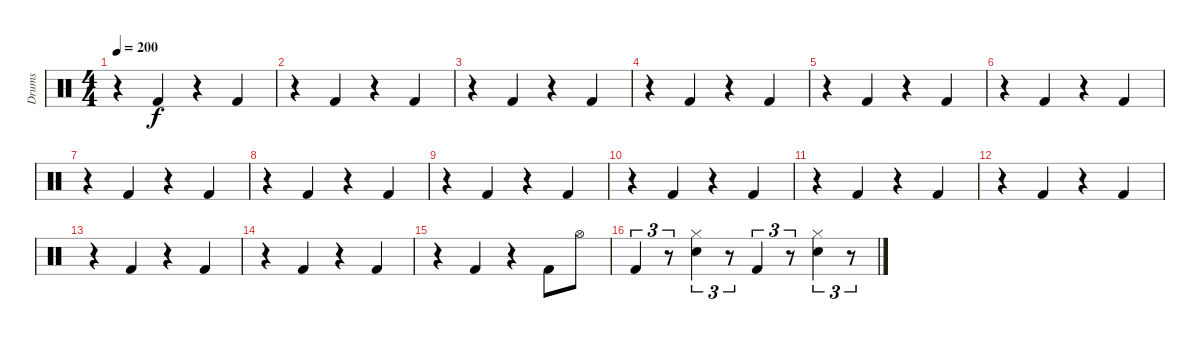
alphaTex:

\track ("Drums" "Drums") {instrument percussion}
\staff {score}
\articulation defaults
\ts (4 4)
\tempo 200
\clef neutral
\ks c
r.4{dy f} "Kick (hit) 2".4 r.4 "Kick (hit) 2".4 |
r.4 "Kick (hit) 2".4 r.4 "Kick (hit) 2".4 |
r.4 "Kick (hit) 2".4 r.4 "Kick (hit) 2".4 |
r.4 "Kick (hit) 2".4 r.4 "Kick (hit) 2".4 |
r.4 "Kick (hit) 2".4 r.4 "Kick (hit) 2".4 |
r.4 "Kick (hit) 2".4 r.4 "Kick (hit) 2".4 |
r.4 "Kick (hit) 2".4 r.4 "Kick (hit) 2".4 |
r.4 "Kick (hit) 2".4 r.4 "Kick (hit) 2".4 |
r.4 "Kick (hit) 2".4 r.4 "Kick (hit) 2".4 |
r.4 "Kick (hit) 2".4 r.4 "Kick (hit) 2".4 |
r.4 "Kick (hit) 2".4 r.4 "Kick (hit) 2".4 |
r.4 "Kick (hit) 2".4 r.4 "Kick (hit) 2".4 |
r.4 "Kick (hit) 2".4 r.4 "Kick (hit) 2".4 |
r.4 "Kick (hit) 2".4 r.4 "Kick (hit) 2".4 |
r.4 "Kick (hit) 2".4 r.4 "Kick (hit) 2".8 "Hi-Hat (open)".8 |
"Kick (hit) 2".4{tu (3 2)} r.8{tu (3 2)} ("Hi-Hat (closed)" "Snare (hit) 2").4{tu (3 2)} r.8{tu (3 2)} "Kick (hit) 2".4{tu (3 2)} r.8{tu (3 2)} ("Hi-Hat (closed)" "Snare (hit) 2").4{tu (3 2)} r.8{tu (3 2)}
